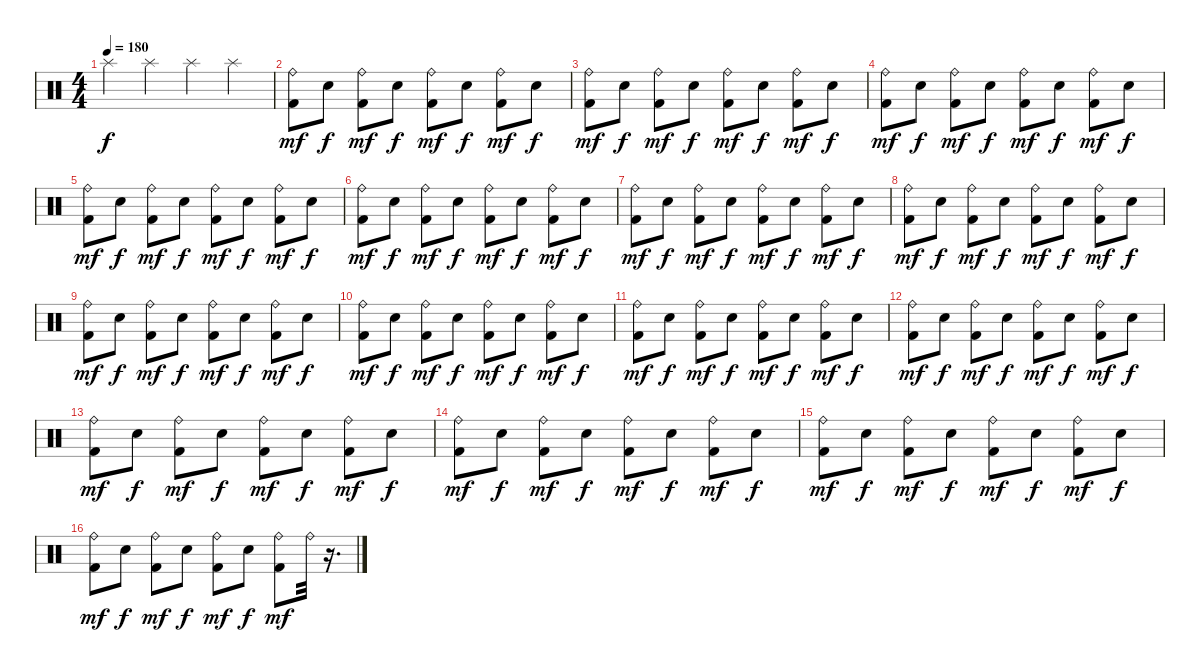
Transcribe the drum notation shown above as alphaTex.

\track "" {instrument percussion}
\staff {score}
\articulation defaults
\ts (4 4)
\tempo 180
\clef neutral
\ks c "Splash (hit)".4{dy f} "Splash (hit)".4 "Splash (hit)".4 "Splash (hit)".4
|
("Ride (bell)" "Kick (hit) 2").8{dy mf} "Snare (hit) 2".8{dy f} ("Ride (bell)" "Kick (hit) 2").8{dy mf} "Snare (hit) 2".8{dy f} ("Ride (bell)" "Kick (hit) 2").8{dy mf} "Snare (hit) 2".8{dy f} ("Ride (bell)" "Kick (hit) 2").8{dy mf} "Snare (hit) 2".8{dy f} |
("Ride (bell)" "Kick (hit) 2").8{dy mf} "Snare (hit) 2".8{dy f} ("Ride (bell)" "Kick (hit) 2").8{dy mf} "Snare (hit) 2".8{dy f} ("Ride (bell)" "Kick (hit) 2").8{dy mf} "Snare (hit) 2".8{dy f} ("Ride (bell)" "Kick (hit) 2").8{dy mf} "Snare (hit) 2".8{dy f} |
("Ride (bell)" "Kick (hit) 2").8{dy mf} "Snare (hit) 2".8{dy f} ("Ride (bell)" "Kick (hit) 2").8{dy mf} "Snare (hit) 2".8{dy f} ("Ride (bell)" "Kick (hit) 2").8{dy mf} "Snare (hit) 2".8{dy f} ("Ride (bell)" "Kick (hit) 2").8{dy mf} "Snare (hit) 2".8{dy f} |
("Ride (bell)" "Kick (hit) 2").8{dy mf} "Snare (hit) 2".8{dy f} ("Ride (bell)" "Kick (hit) 2").8{dy mf} "Snare (hit) 2".8{dy f} ("Ride (bell)" "Kick (hit) 2").8{dy mf} "Snare (hit) 2".8{dy f} ("Ride (bell)" "Kick (hit) 2").8{dy mf} "Snare (hit) 2".8{dy f} |
("Ride (bell)" "Kick (hit) 2").8{dy mf} "Snare (hit) 2".8{dy f} ("Ride (bell)" "Kick (hit) 2").8{dy mf} "Snare (hit) 2".8{dy f} ("Ride (bell)" "Kick (hit) 2").8{dy mf} "Snare (hit) 2".8{dy f} ("Ride (bell)" "Kick (hit) 2").8{dy mf} "Snare (hit) 2".8{dy f} |
("Ride (bell)" "Kick (hit) 2").8{dy mf} "Snare (hit) 2".8{dy f} ("Ride (bell)" "Kick (hit) 2").8{dy mf} "Snare (hit) 2".8{dy f} ("Ride (bell)" "Kick (hit) 2").8{dy mf} "Snare (hit) 2".8{dy f} ("Ride (bell)" "Kick (hit) 2").8{dy mf} "Snare (hit) 2".8{dy f} |
("Ride (bell)" "Kick (hit) 2").8{dy mf} "Snare (hit) 2".8{dy f} ("Ride (bell)" "Kick (hit) 2").8{dy mf} "Snare (hit) 2".8{dy f} ("Ride (bell)" "Kick (hit) 2").8{dy mf} "Snare (hit) 2".8{dy f} ("Ride (bell)" "Kick (hit) 2").8{dy mf} "Snare (hit) 2".8{dy f} |
("Ride (bell)" "Kick (hit) 2").8{dy mf} "Snare (hit) 2".8{dy f} ("Ride (bell)" "Kick (hit) 2").8{dy mf} "Snare (hit) 2".8{dy f} ("Ride (bell)" "Kick (hit) 2").8{dy mf} "Snare (hit) 2".8{dy f} ("Ride (bell)" "Kick (hit) 2").8{dy mf} "Snare (hit) 2".8{dy f} |
("Ride (bell)" "Kick (hit) 2").8{dy mf} "Snare (hit) 2".8{dy f} ("Ride (bell)" "Kick (hit) 2").8{dy mf} "Snare (hit) 2".8{dy f} ("Ride (bell)" "Kick (hit) 2").8{dy mf} "Snare (hit) 2".8{dy f} ("Ride (bell)" "Kick (hit) 2").8{dy mf} "Snare (hit) 2".8{dy f} |
("Ride (bell)" "Kick (hit) 2").8{dy mf} "Snare (hit) 2".8{dy f} ("Ride (bell)" "Kick (hit) 2").8{dy mf} "Snare (hit) 2".8{dy f} ("Ride (bell)" "Kick (hit) 2").8{dy mf} "Snare (hit) 2".8{dy f} ("Ride (bell)" "Kick (hit) 2").8{dy mf} "Snare (hit) 2".8{dy f} |
("Ride (bell)" "Kick (hit) 2").8{dy mf} "Snare (hit) 2".8{dy f} ("Ride (bell)" "Kick (hit) 2").8{dy mf} "Snare (hit) 2".8{dy f} ("Ride (bell)" "Kick (hit) 2").8{dy mf} "Snare (hit) 2".8{dy f} ("Ride (bell)" "Kick (hit) 2").8{dy mf} "Snare (hit) 2".8{dy f} |
("Ride (bell)" "Kick (hit) 2").8{dy mf} "Snare (hit) 2".8{dy f} ("Ride (bell)" "Kick (hit) 2").8{dy mf} "Snare (hit) 2".8{dy f} ("Ride (bell)" "Kick (hit) 2").8{dy mf} "Snare (hit) 2".8{dy f} ("Ride (bell)" "Kick (hit) 2").8{dy mf} "Snare (hit) 2".8{dy f} |
("Ride (bell)" "Kick (hit) 2").8{dy mf} "Snare (hit) 2".8{dy f} ("Ride (bell)" "Kick (hit) 2").8{dy mf} "Snare (hit) 2".8{dy f} ("Ride (bell)" "Kick (hit) 2").8{dy mf} "Snare (hit) 2".8{dy f} ("Ride (bell)" "Kick (hit) 2").8{dy mf} "Snare (hit) 2".8{dy f} |
("Ride (bell)" "Kick (hit) 2").8{dy mf} "Snare (hit) 2".8{dy f} ("Ride (bell)" "Kick (hit) 2").8{dy mf} "Snare (hit) 2".8{dy f} ("Ride (bell)" "Kick (hit) 2").8{dy mf} "Snare (hit) 2".8{dy f} ("Ride (bell)" "Kick (hit) 2").8{dy mf} "Snare (hit) 2".8{dy f} |
("Ride (bell)" "Kick (hit) 2").8{dy mf} "Snare (hit) 2".8{dy f} ("Ride (bell)" "Kick (hit) 2").8{dy mf} "Snare (hit) 2".8{dy f} ("Ride (bell)" "Kick (hit) 2").8{dy mf} "Snare (hit) 2".8{dy f} ("Ride (bell)" "Kick (hit) 2").8{dy mf} "Ride (bell)".32 r.16{d}
